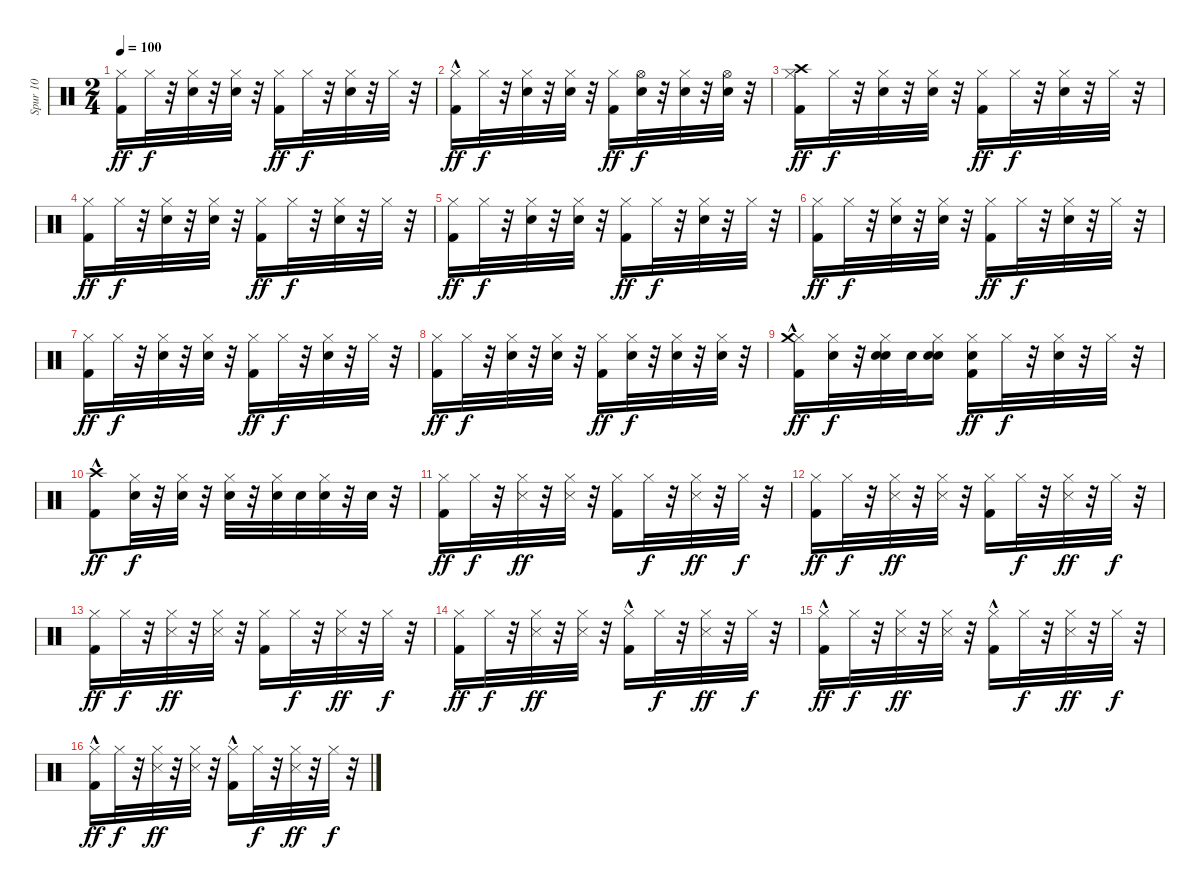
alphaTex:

\track ("Spur 10" "Spur 10") {instrument percussion}
\staff {score}
\articulation defaults
\ts (2 4)
\tempo 100
\clef neutral
\ks c
("Hi-Hat (closed)" "Kick (hit) 2").16{dy ff} "Hi-Hat (closed)".32{dy f} r.32 ("Electric Snare (hit)" "Hi-Hat (closed)").32 r.32 ("Hi-Hat (closed)" "Electric Snare (hit)").32 r.32 ("Hi-Hat (closed)" "Kick (hit) 2").16{dy ff} "Hi-Hat (closed)".32{dy f} r.32 ("Electric Snare (hit)" "Hi-Hat (closed)").32 r.32 "Hi-Hat (closed)".32 r.32 |
("Hi-Hat (closed)" "Kick (hit) 2"{hac}).16{dy ff} "Hi-Hat (closed)".32{dy f} r.32 ("Hi-Hat (closed)" "Electric Snare (hit)").32 r.32 ("Hi-Hat (closed)" "Electric Snare (hit)").32 r.32 ("Kick (hit) 2" "Hi-Hat (closed)").16{dy ff} ("Hi-Hat (open)" "Electric Snare (hit)").32{dy f} r.32 ("Hi-Hat (closed)" "Electric Snare (hit)").32 r.32 ("Hi-Hat (open)" "Electric Snare (hit)").32 r.32 |
("Crash high (hit)" "Kick (hit) 2" "Hi-Hat (closed)").16{dy ff volume 14} "Hi-Hat (closed)".32{dy f} r.32 ("Electric Snare (hit)" "Hi-Hat (closed)").32 r.32 ("Electric Snare (hit)" "Hi-Hat (closed)").32 r.32 ("Hi-Hat (closed)" "Kick (hit) 2").16{dy ff} "Hi-Hat (closed)".32{dy f} r.32 ("Electric Snare (hit)" "Hi-Hat (closed)").32 r.32 "Hi-Hat (closed)".32 r.32 |
("Hi-Hat (closed)" "Kick (hit) 2").16{dy ff} "Hi-Hat (closed)".32{dy f} r.32 ("Hi-Hat (closed)" "Electric Snare (hit)").32 r.32 ("Hi-Hat (closed)" "Electric Snare (hit)").32 r.32 ("Kick (hit) 2" "Hi-Hat (closed)").16{dy ff} "Hi-Hat (closed)".32{dy f} r.32 ("Electric Snare (hit)" "Hi-Hat (closed)").32 r.32 "Hi-Hat (closed)".32 r.32 |
("Kick (hit) 2" "Hi-Hat (closed)").16{dy ff} "Hi-Hat (closed)".32{dy f} r.32 ("Hi-Hat (closed)" "Electric Snare (hit)").32 r.32 ("Hi-Hat (closed)" "Electric Snare (hit)").32 r.32 ("Kick (hit) 2" "Hi-Hat (closed)").16{dy ff} "Hi-Hat (closed)".32{dy f} r.32 ("Hi-Hat (closed)" "Electric Snare (hit)").32 r.32 "Hi-Hat (closed)".32 r.32 |
("Hi-Hat (closed)" "Kick (hit) 2").16{dy ff} "Hi-Hat (closed)".32{dy f} r.32 ("Hi-Hat (closed)" "Electric Snare (hit)").32 r.32 ("Electric Snare (hit)" "Hi-Hat (closed)").32 r.32 ("Kick (hit) 2" "Hi-Hat (closed)").16{dy ff} "Hi-Hat (closed)".32{dy f} r.32 ("Electric Snare (hit)" "Hi-Hat (closed)").32 r.32 "Hi-Hat (closed)".32 r.32 |
("Kick (hit) 2" "Hi-Hat (closed)").16{dy ff} "Hi-Hat (closed)".32{dy f} r.32 ("Electric Snare (hit)" "Hi-Hat (closed)").32 r.32 ("Electric Snare (hit)" "Hi-Hat (closed)").32 r.32 ("Kick (hit) 2" "Hi-Hat (closed)").16{dy ff} "Hi-Hat (closed)".32{dy f} r.32 ("Electric Snare (hit)" "Hi-Hat (closed)").32 r.32 "Hi-Hat (closed)".32 r.32 |
("Hi-Hat (closed)" "Kick (hit) 2").16{dy ff} "Hi-Hat (closed)".32{dy f} r.32 ("Electric Snare (hit)" "Hi-Hat (closed)").32 r.32 ("Electric Snare (hit)" "Hi-Hat (closed)").32 r.32 ("Kick (hit) 2" "Hi-Hat (closed)").16{dy ff} ("Hi-Hat (closed)" "Electric Snare (hit)").32{dy f} r.32 ("Hi-Hat (closed)" "Electric Snare (hit)").32 r.32 ("Electric Snare (hit)" "Hi-Hat (closed)").32 r.32 |
("Hi-Hat (closed)" "Crash medium (hit)" "Kick (hit) 2"{hac}).16{dy ff volume 14} ("Electric Snare (hit)" "Hi-Hat (closed)").32{dy f} r.32 ("Electric Snare (hit)" "Hi-Hat (closed)" "Electric Snare (hit)").32 "Electric Snare (hit)".32 ("Electric Snare (hit)" "Hi-Hat (closed)" "Electric Snare (hit)").16 ("Hi-Hat (closed)" "Kick (hit) 2" "Electric Snare (hit)").16{dy ff} "Hi-Hat (closed)".32{dy f} r.32 ("Hi-Hat (closed)" "Electric Snare (hit)").32 r.32 "Hi-Hat (closed)".32 r.32 |
("Crash high (hit)" "Kick (hit) 2"{hac}).8{dy ff volume 14} ("Hi-Hat (closed)" "Electric Snare (hit)").32{dy f} r.32 ("Hi-Hat (closed)" "Electric Snare (hit)").32 r.32 ("Hi-Hat (closed)" "Electric Snare (hit)").32 r.32 ("Electric Snare (hit)" "Hi-Hat (closed)").32 "Electric Snare (hit)".32 ("Electric Snare (hit)" "Hi-Hat (closed)").32 r.32 "Electric Snare (hit)".32 r.32 |
("Hi-Hat (closed)" "Kick (hit) 2").16{dy ff volume 14} "Hi-Hat (closed)".32{dy f} r.32 ("Snare (side stick) 3" "Hi-Hat (closed)").32{dy ff} r.32 ("Snare (side stick) 3" "Hi-Hat (closed)").32 r.32 ("Kick (hit) 2" "Hi-Hat (closed)").16 "Hi-Hat (closed)".32{dy f} r.32 ("Snare (side stick) 3" "Hi-Hat (closed)").32{dy ff} r.32 "Hi-Hat (closed)".32{dy f} r.32 |
("Hi-Hat (closed)" "Kick (hit) 2").16{dy ff} "Hi-Hat (closed)".32{dy f} r.32 ("Hi-Hat (closed)" "Snare (side stick) 3").32{dy ff} r.32 ("Hi-Hat (closed)" "Snare (side stick) 3").32 r.32 ("Kick (hit) 2" "Hi-Hat (closed)").16 "Hi-Hat (closed)".32{dy f} r.32 ("Snare (side stick) 3" "Hi-Hat (closed)").32{dy ff} r.32 "Hi-Hat (closed)".32{dy f} r.32 |
("Kick (hit) 2" "Hi-Hat (closed)").16{dy ff} "Hi-Hat (closed)".32{dy f} r.32 ("Snare (side stick) 3" "Hi-Hat (closed)").32{dy ff} r.32 ("Hi-Hat (closed)" "Snare (side stick) 3").32 r.32 ("Kick (hit) 2" "Hi-Hat (closed)").16 "Hi-Hat (closed)".32{dy f} r.32 ("Snare (side stick) 3" "Hi-Hat (closed)").32{dy ff} r.32 "Hi-Hat (closed)".32{dy f} r.32 |
("Kick (hit) 2" "Hi-Hat (closed)").16{dy ff} "Hi-Hat (closed)".32{dy f} r.32 ("Hi-Hat (closed)" "Snare (side stick) 3").32{dy ff} r.32 ("Hi-Hat (closed)" "Snare (side stick) 3").32 r.32 ("Kick (hit) 2"{hac} "Hi-Hat (closed)").16 "Hi-Hat (closed)".32{dy f} r.32 ("Snare (side stick) 3" "Hi-Hat (closed)").32{dy ff} r.32 "Hi-Hat (closed)".32{dy f} r.32 |
("Kick (hit) 2"{hac} "Hi-Hat (closed)").16{dy ff} "Hi-Hat (closed)".32{dy f} r.32 ("Snare (side stick) 3" "Hi-Hat (closed)").32{dy ff} r.32 ("Snare (side stick) 3" "Hi-Hat (closed)").32 r.32 ("Kick (hit) 2"{hac} "Hi-Hat (closed)").16 "Hi-Hat (closed)".32{dy f} r.32 ("Snare (side stick) 3" "Hi-Hat (closed)").32{dy ff} r.32 "Hi-Hat (closed)".32{dy f} r.32 |
("Kick (hit) 2"{hac} "Hi-Hat (closed)").16{dy ff} "Hi-Hat (closed)".32{dy f} r.32 ("Snare (side stick) 3" "Hi-Hat (closed)").32{dy ff} r.32 ("Snare (side stick) 3" "Hi-Hat (closed)").32 r.32 ("Kick (hit) 2"{hac} "Hi-Hat (closed)").16 "Hi-Hat (closed)".32{dy f} r.32 ("Snare (side stick) 3" "Hi-Hat (closed)").32{dy ff} r.32 "Hi-Hat (closed)".32{dy f} r.32
